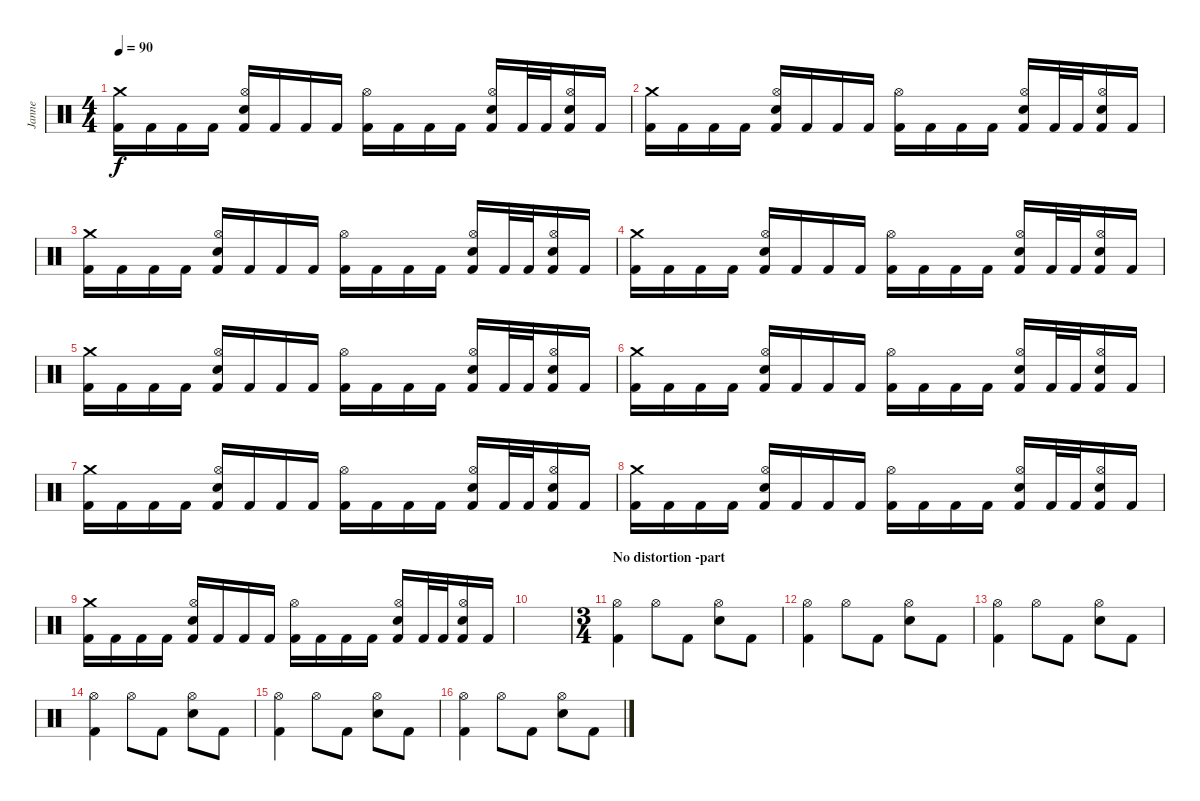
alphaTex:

\track ("Janne" "Janne") {instrument percussion}
\staff {score}
\articulation defaults
\ts (4 4)
\tempo 90
\clef neutral
\ks c
("Crash medium (hit)" "Kick (hit) 2").16{dy f} "Kick (hit) 2".16 "Kick (hit) 2".16 "Kick (hit) 2".16 ("Hi-Hat (open)" "Electric Snare (hit)" "Kick (hit) 2").16 "Kick (hit) 2".16 "Kick (hit) 2".16 "Kick (hit) 2".16 ("Hi-Hat (open)" "Kick (hit) 2").16 "Kick (hit) 2".16 "Kick (hit) 2".16 "Kick (hit) 2".16 ("Hi-Hat (open)" "Electric Snare (hit)" "Kick (hit) 2").16 "Kick (hit) 2".32 "Kick (hit) 2".32 ("Hi-Hat (open)" "Electric Snare (hit)" "Kick (hit) 2").16 "Kick (hit) 2".16 |
("Crash medium (hit)" "Kick (hit) 2").16 "Kick (hit) 2".16 "Kick (hit) 2".16 "Kick (hit) 2".16 ("Hi-Hat (open)" "Electric Snare (hit)" "Kick (hit) 2").16 "Kick (hit) 2".16 "Kick (hit) 2".16 "Kick (hit) 2".16 ("Hi-Hat (open)" "Kick (hit) 2").16 "Kick (hit) 2".16 "Kick (hit) 2".16 "Kick (hit) 2".16 ("Hi-Hat (open)" "Electric Snare (hit)" "Kick (hit) 2").16 "Kick (hit) 2".32 "Kick (hit) 2".32 ("Hi-Hat (open)" "Electric Snare (hit)" "Kick (hit) 2").16 "Kick (hit) 2".16 |
("Crash medium (hit)" "Kick (hit) 2").16 "Kick (hit) 2".16 "Kick (hit) 2".16 "Kick (hit) 2".16 ("Hi-Hat (open)" "Electric Snare (hit)" "Kick (hit) 2").16 "Kick (hit) 2".16 "Kick (hit) 2".16 "Kick (hit) 2".16 ("Hi-Hat (open)" "Kick (hit) 2").16 "Kick (hit) 2".16 "Kick (hit) 2".16 "Kick (hit) 2".16 ("Hi-Hat (open)" "Electric Snare (hit)" "Kick (hit) 2").16 "Kick (hit) 2".32 "Kick (hit) 2".32 ("Hi-Hat (open)" "Electric Snare (hit)" "Kick (hit) 2").16 "Kick (hit) 2".16 |
("Crash medium (hit)" "Kick (hit) 2").16 "Kick (hit) 2".16 "Kick (hit) 2".16 "Kick (hit) 2".16 ("Hi-Hat (open)" "Electric Snare (hit)" "Kick (hit) 2").16 "Kick (hit) 2".16 "Kick (hit) 2".16 "Kick (hit) 2".16 ("Hi-Hat (open)" "Kick (hit) 2").16 "Kick (hit) 2".16 "Kick (hit) 2".16 "Kick (hit) 2".16 ("Hi-Hat (open)" "Electric Snare (hit)" "Kick (hit) 2").16 "Kick (hit) 2".32 "Kick (hit) 2".32 ("Hi-Hat (open)" "Electric Snare (hit)" "Kick (hit) 2").16 "Kick (hit) 2".16 |
("Crash medium (hit)" "Kick (hit) 2").16 "Kick (hit) 2".16 "Kick (hit) 2".16 "Kick (hit) 2".16 ("Hi-Hat (open)" "Electric Snare (hit)" "Kick (hit) 2").16 "Kick (hit) 2".16 "Kick (hit) 2".16 "Kick (hit) 2".16 ("Hi-Hat (open)" "Kick (hit) 2").16 "Kick (hit) 2".16 "Kick (hit) 2".16 "Kick (hit) 2".16 ("Hi-Hat (open)" "Electric Snare (hit)" "Kick (hit) 2").16 "Kick (hit) 2".32 "Kick (hit) 2".32 ("Hi-Hat (open)" "Electric Snare (hit)" "Kick (hit) 2").16 "Kick (hit) 2".16 |
("Crash medium (hit)" "Kick (hit) 2").16 "Kick (hit) 2".16 "Kick (hit) 2".16 "Kick (hit) 2".16 ("Hi-Hat (open)" "Electric Snare (hit)" "Kick (hit) 2").16 "Kick (hit) 2".16 "Kick (hit) 2".16 "Kick (hit) 2".16 ("Hi-Hat (open)" "Kick (hit) 2").16 "Kick (hit) 2".16 "Kick (hit) 2".16 "Kick (hit) 2".16 ("Hi-Hat (open)" "Electric Snare (hit)" "Kick (hit) 2").16 "Kick (hit) 2".32 "Kick (hit) 2".32 ("Hi-Hat (open)" "Electric Snare (hit)" "Kick (hit) 2").16 "Kick (hit) 2".16 |
("Crash medium (hit)" "Kick (hit) 2").16 "Kick (hit) 2".16 "Kick (hit) 2".16 "Kick (hit) 2".16 ("Hi-Hat (open)" "Electric Snare (hit)" "Kick (hit) 2").16 "Kick (hit) 2".16 "Kick (hit) 2".16 "Kick (hit) 2".16 ("Hi-Hat (open)" "Kick (hit) 2").16 "Kick (hit) 2".16 "Kick (hit) 2".16 "Kick (hit) 2".16 ("Hi-Hat (open)" "Electric Snare (hit)" "Kick (hit) 2").16 "Kick (hit) 2".32 "Kick (hit) 2".32 ("Hi-Hat (open)" "Electric Snare (hit)" "Kick (hit) 2").16 "Kick (hit) 2".16 |
("Crash medium (hit)" "Kick (hit) 2").16 "Kick (hit) 2".16 "Kick (hit) 2".16 "Kick (hit) 2".16 ("Hi-Hat (open)" "Electric Snare (hit)" "Kick (hit) 2").16 "Kick (hit) 2".16 "Kick (hit) 2".16 "Kick (hit) 2".16 ("Hi-Hat (open)" "Kick (hit) 2").16 "Kick (hit) 2".16 "Kick (hit) 2".16 "Kick (hit) 2".16 ("Hi-Hat (open)" "Electric Snare (hit)" "Kick (hit) 2").16 "Kick (hit) 2".32 "Kick (hit) 2".32 ("Hi-Hat (open)" "Electric Snare (hit)" "Kick (hit) 2").16 "Kick (hit) 2".16 |
("Crash medium (hit)" "Kick (hit) 2").16 "Kick (hit) 2".16 "Kick (hit) 2".16 "Kick (hit) 2".16 ("Hi-Hat (open)" "Electric Snare (hit)" "Kick (hit) 2").16 "Kick (hit) 2".16 "Kick (hit) 2".16 "Kick (hit) 2".16 ("Hi-Hat (open)" "Kick (hit) 2").16 "Kick (hit) 2".16 "Kick (hit) 2".16 "Kick (hit) 2".16 ("Hi-Hat (open)" "Electric Snare (hit)" "Kick (hit) 2").16 "Kick (hit) 2".32 "Kick (hit) 2".32 ("Hi-Hat (open)" "Electric Snare (hit)" "Kick (hit) 2").16 "Kick (hit) 2".16 |
|
\ts (3 4)
\section ("" "No distortion -part")
("Hi-Hat (open)" "Kick (hit) 2").4 "Hi-Hat (open)".8 "Kick (hit) 2".8 ("Hi-Hat (open)" "Electric Snare (hit)").8 "Kick (hit) 2".8 |
("Hi-Hat (open)" "Kick (hit) 2").4 "Hi-Hat (open)".8 "Kick (hit) 2".8 ("Hi-Hat (open)" "Electric Snare (hit)").8 "Kick (hit) 2".8 |
("Hi-Hat (open)" "Kick (hit) 2").4 "Hi-Hat (open)".8 "Kick (hit) 2".8 ("Hi-Hat (open)" "Electric Snare (hit)").8 "Kick (hit) 2".8 |
("Hi-Hat (open)" "Kick (hit) 2").4 "Hi-Hat (open)".8 "Kick (hit) 2".8 ("Hi-Hat (open)" "Electric Snare (hit)").8 "Kick (hit) 2".8 |
("Hi-Hat (open)" "Kick (hit) 2").4 "Hi-Hat (open)".8 "Kick (hit) 2".8 ("Hi-Hat (open)" "Electric Snare (hit)").8 "Kick (hit) 2".8 |
("Hi-Hat (open)" "Kick (hit) 2").4 "Hi-Hat (open)".8 "Kick (hit) 2".8 ("Hi-Hat (open)" "Electric Snare (hit)").8 "Kick (hit) 2".8
